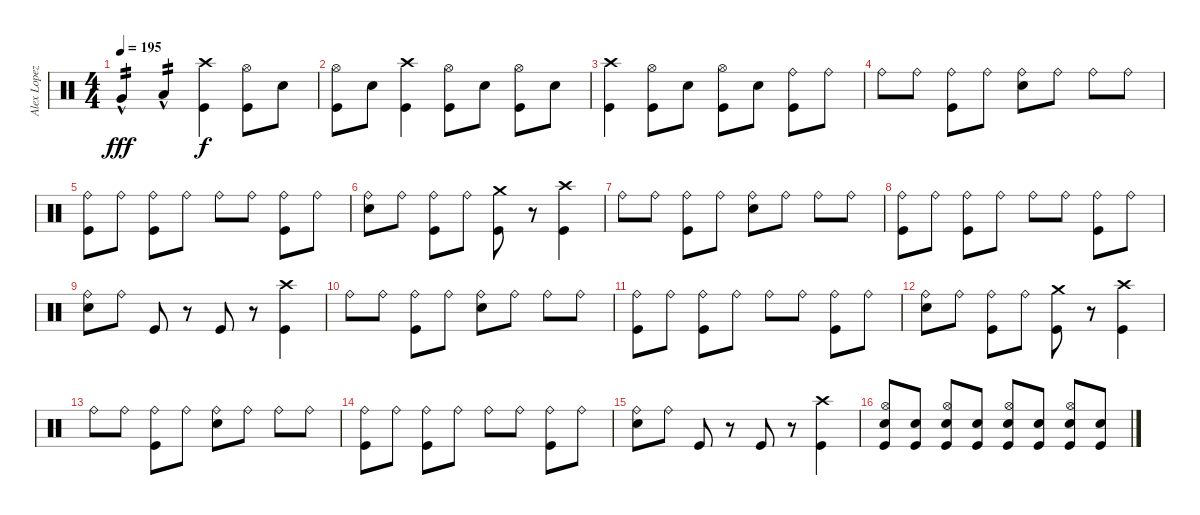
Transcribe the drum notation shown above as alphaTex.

\track ("Alex Lopez" "Alex Lopez") {instrument percussion}
\staff {score}
\articulation defaults
\ts (4 4)
\tempo 195
\clef neutral
\ks c "Very Low Tom (hit)"{hac}.4{tp 2 dy fff} "Low Floor Tom (hit)"{hac}.4{tp 2}
("Crash high (hit)" "Kick (hit)").4{dy f} ("Hi-Hat (open)" "Kick (hit)").8 "Electric Snare (hit)".8 |
("Hi-Hat (open)" "Kick (hit)").8 "Electric Snare (hit)".8 ("Crash high (hit)" "Kick (hit)").4 ("Hi-Hat (open)" "Kick (hit)").8 "Electric Snare (hit)".8 ("Hi-Hat (open)" "Kick (hit)").8 "Electric Snare (hit)".8 |
("Crash high (hit)" "Kick (hit)").4 ("Hi-Hat (open)" "Kick (hit)").8 "Electric Snare (hit)".8 ("Hi-Hat (open)" "Kick (hit)").8 "Electric Snare (hit)".8 ("Ride (bell)" "Kick (hit)").8 "Ride (bell)".8 |
"Ride (bell)".8 "Ride (bell)".8 ("Ride (bell)" "Kick (hit)").8 "Ride (bell)".8 ("Ride (bell)" "Electric Snare (hit)").8 "Ride (bell)".8 "Ride (bell)".8 "Ride (bell)".8 |
("Ride (bell)" "Kick (hit)").8 "Ride (bell)".8 ("Ride (bell)" "Kick (hit)").8 "Ride (bell)".8 "Ride (bell)".8 "Ride (bell)".8 ("Ride (bell)" "Kick (hit)").8 "Ride (bell)".8 |
("Ride (bell)" "Electric Snare (hit)").8 "Ride (bell)".8 ("Ride (bell)" "Kick (hit)").8 "Ride (bell)".8 ("Crash medium (hit)" "Kick (hit)").8 r.8 ("Crash high (hit)" "Kick (hit)").4 |
"Ride (bell)".8 "Ride (bell)".8 ("Ride (bell)" "Kick (hit)").8 "Ride (bell)".8 ("Ride (bell)" "Electric Snare (hit)").8 "Ride (bell)".8 "Ride (bell)".8 "Ride (bell)".8 |
("Ride (bell)" "Kick (hit)").8 "Ride (bell)".8 ("Ride (bell)" "Kick (hit)").8 "Ride (bell)".8 "Ride (bell)".8 "Ride (bell)".8 ("Ride (bell)" "Kick (hit)").8 "Ride (bell)".8 |
("Ride (bell)" "Electric Snare (hit)").8 "Ride (bell)".8 "Kick (hit)".8 r.8 "Kick (hit)".8 r.8 ("Crash high (hit)" "Kick (hit)").4 |
"Ride (bell)".8 "Ride (bell)".8 ("Ride (bell)" "Kick (hit)").8 "Ride (bell)".8 ("Ride (bell)" "Electric Snare (hit)").8 "Ride (bell)".8 "Ride (bell)".8 "Ride (bell)".8 |
("Ride (bell)" "Kick (hit)").8 "Ride (bell)".8 ("Ride (bell)" "Kick (hit)").8 "Ride (bell)".8 "Ride (bell)".8 "Ride (bell)".8 ("Ride (bell)" "Kick (hit)").8 "Ride (bell)".8 |
("Ride (bell)" "Electric Snare (hit)").8 "Ride (bell)".8 ("Ride (bell)" "Kick (hit)").8 "Ride (bell)".8 ("Crash medium (hit)" "Kick (hit)").8 r.8 ("Crash high (hit)" "Kick (hit)").4 |
"Ride (bell)".8 "Ride (bell)".8 ("Ride (bell)" "Kick (hit)").8 "Ride (bell)".8 ("Ride (bell)" "Electric Snare (hit)").8 "Ride (bell)".8 "Ride (bell)".8 "Ride (bell)".8 |
("Ride (bell)" "Kick (hit)").8 "Ride (bell)".8 ("Ride (bell)" "Kick (hit)").8 "Ride (bell)".8 "Ride (bell)".8 "Ride (bell)".8 ("Ride (bell)" "Kick (hit)").8 "Ride (bell)".8 |
("Ride (bell)" "Electric Snare (hit)").8 "Ride (bell)".8 "Kick (hit)".8 r.8 "Kick (hit)".8 r.8 ("Crash high (hit)" "Kick (hit)").4 |
("Hi-Hat (open)" "Electric Snare (hit)" "Kick (hit)").8 ("Electric Snare (hit)" "Kick (hit)").8 ("Hi-Hat (open)" "Electric Snare (hit)" "Kick (hit)").8 ("Electric Snare (hit)" "Kick (hit)").8 ("Hi-Hat (open)" "Electric Snare (hit)" "Kick (hit)").8 ("Electric Snare (hit)" "Kick (hit)").8 ("Hi-Hat (open)" "Electric Snare (hit)" "Kick (hit)").8 ("Electric Snare (hit)" "Kick (hit)").8
